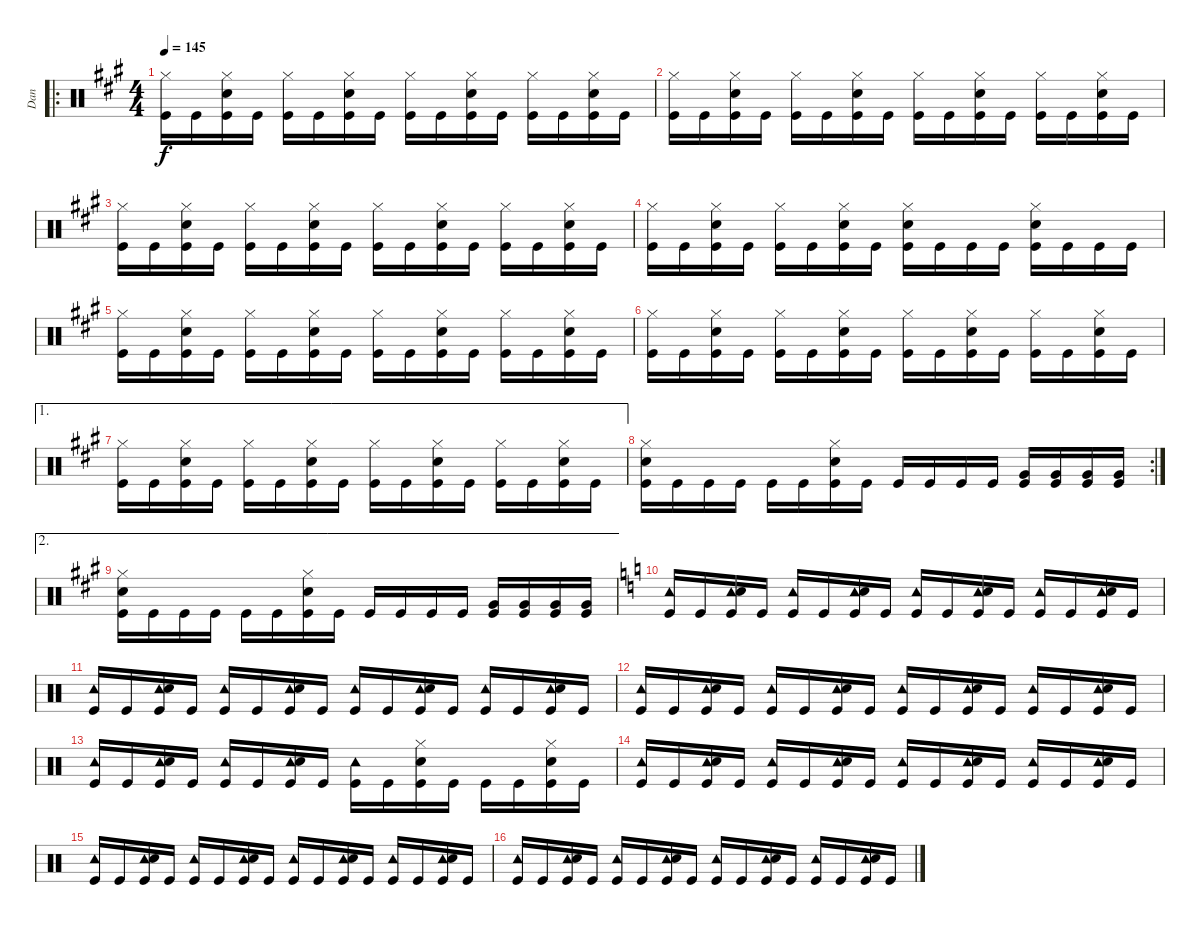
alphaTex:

\track ("Dan" "Dan") {instrument percussion}
\staff {score}
\articulation defaults
\ro
\ts (4 4)
\tempo 145
\clef neutral
\ks a
("Hi-Hat (closed)" "Kick (hit)").16{dy f} "Kick (hit)".16 ("Hi-Hat (closed)" "Snare (hit) 2" "Kick (hit)").16 "Kick (hit)".16 ("Hi-Hat (closed)" "Kick (hit)").16 "Kick (hit)".16 ("Hi-Hat (closed)" "Snare (hit) 2" "Kick (hit)").16 "Kick (hit)".16 ("Hi-Hat (closed)" "Kick (hit)").16 "Kick (hit)".16 ("Hi-Hat (closed)" "Snare (hit) 2" "Kick (hit)").16 "Kick (hit)".16 ("Hi-Hat (closed)" "Kick (hit)").16 "Kick (hit)".16 ("Hi-Hat (closed)" "Snare (hit) 2" "Kick (hit)").16 "Kick (hit)".16 |
("Hi-Hat (closed)" "Kick (hit)").16 "Kick (hit)".16 ("Hi-Hat (closed)" "Snare (hit) 2" "Kick (hit)").16 "Kick (hit)".16 ("Hi-Hat (closed)" "Kick (hit)").16 "Kick (hit)".16 ("Hi-Hat (closed)" "Snare (hit) 2" "Kick (hit)").16 "Kick (hit)".16 ("Hi-Hat (closed)" "Kick (hit)").16 "Kick (hit)".16 ("Hi-Hat (closed)" "Snare (hit) 2" "Kick (hit)").16 "Kick (hit)".16 ("Hi-Hat (closed)" "Kick (hit)").16 "Kick (hit)".16 ("Hi-Hat (closed)" "Snare (hit) 2" "Kick (hit)").16 "Kick (hit)".16 |
("Hi-Hat (closed)" "Kick (hit)").16 "Kick (hit)".16 ("Hi-Hat (closed)" "Snare (hit) 2" "Kick (hit)").16 "Kick (hit)".16 ("Hi-Hat (closed)" "Kick (hit)").16 "Kick (hit)".16 ("Hi-Hat (closed)" "Snare (hit) 2" "Kick (hit)").16 "Kick (hit)".16 ("Hi-Hat (closed)" "Kick (hit)").16 "Kick (hit)".16 ("Hi-Hat (closed)" "Snare (hit) 2" "Kick (hit)").16 "Kick (hit)".16 ("Hi-Hat (closed)" "Kick (hit)").16 "Kick (hit)".16 ("Hi-Hat (closed)" "Snare (hit) 2" "Kick (hit)").16 "Kick (hit)".16 |
("Hi-Hat (closed)" "Kick (hit)").16 "Kick (hit)".16 ("Hi-Hat (closed)" "Snare (hit) 2" "Kick (hit)").16 "Kick (hit)".16 ("Hi-Hat (closed)" "Kick (hit)").16 "Kick (hit)".16 ("Hi-Hat (closed)" "Snare (hit) 2" "Kick (hit)").16 "Kick (hit)".16 ("Hi-Hat (closed)" "Snare (hit) 2" "Kick (hit)").16 "Kick (hit)".16 "Kick (hit)".16 "Kick (hit)".16 ("Hi-Hat (closed)" "Snare (hit) 2" "Kick (hit)").16 "Kick (hit)".16 "Kick (hit)".16 "Kick (hit)".16 |
("Hi-Hat (closed)" "Kick (hit)").16 "Kick (hit)".16 ("Hi-Hat (closed)" "Snare (hit) 2" "Kick (hit)").16 "Kick (hit)".16 ("Hi-Hat (closed)" "Kick (hit)").16 "Kick (hit)".16 ("Hi-Hat (closed)" "Snare (hit) 2" "Kick (hit)").16 "Kick (hit)".16 ("Hi-Hat (closed)" "Kick (hit)").16 "Kick (hit)".16 ("Hi-Hat (closed)" "Snare (hit) 2" "Kick (hit)").16 "Kick (hit)".16 ("Hi-Hat (closed)" "Kick (hit)").16 "Kick (hit)".16 ("Hi-Hat (closed)" "Snare (hit) 2" "Kick (hit)").16 "Kick (hit)".16 |
("Hi-Hat (closed)" "Kick (hit)").16 "Kick (hit)".16 ("Hi-Hat (closed)" "Snare (hit) 2" "Kick (hit)").16 "Kick (hit)".16 ("Hi-Hat (closed)" "Kick (hit)").16 "Kick (hit)".16 ("Hi-Hat (closed)" "Snare (hit) 2" "Kick (hit)").16 "Kick (hit)".16 ("Hi-Hat (closed)" "Kick (hit)").16 "Kick (hit)".16 ("Hi-Hat (closed)" "Snare (hit) 2" "Kick (hit)").16 "Kick (hit)".16 ("Hi-Hat (closed)" "Kick (hit)").16 "Kick (hit)".16 ("Hi-Hat (closed)" "Snare (hit) 2" "Kick (hit)").16 "Kick (hit)".16 |
\ae 1
("Hi-Hat (closed)" "Kick (hit)").16 "Kick (hit)".16 ("Hi-Hat (closed)" "Snare (hit) 2" "Kick (hit)").16 "Kick (hit)".16 ("Hi-Hat (closed)" "Kick (hit)").16 "Kick (hit)".16 ("Hi-Hat (closed)" "Snare (hit) 2" "Kick (hit)").16 "Kick (hit)".16 ("Hi-Hat (closed)" "Kick (hit)").16 "Kick (hit)".16 ("Hi-Hat (closed)" "Snare (hit) 2" "Kick (hit)").16 "Kick (hit)".16 ("Hi-Hat (closed)" "Kick (hit)").16 "Kick (hit)".16 ("Hi-Hat (closed)" "Snare (hit) 2" "Kick (hit)").16 "Kick (hit)".16 |
\rc 2
("Hi-Hat (closed)" "Snare (hit) 2" "Kick (hit)").16 "Kick (hit)".16 "Kick (hit)".16 "Kick (hit)".16 "Kick (hit)".16 "Kick (hit)".16 ("Hi-Hat (closed)" "Snare (hit) 2" "Kick (hit)").16 "Kick (hit)".16 "Kick (hit)".16 "Kick (hit)".16 "Kick (hit)".16 "Kick (hit)".16 ("Very Low Tom (hit)" "Kick (hit)").16 ("Very Low Tom (hit)" "Kick (hit)").16 ("Very Low Tom (hit)" "Kick (hit)").16 ("Very Low Tom (hit)" "Kick (hit)").16 |
\ae 2
("Hi-Hat (closed)" "Snare (hit) 2" "Kick (hit)").16 "Kick (hit)".16 "Kick (hit)".16 "Kick (hit)".16 "Kick (hit)".16 "Kick (hit)".16 ("Hi-Hat (closed)" "Snare (hit) 2" "Kick (hit)").16 "Kick (hit)".16 "Kick (hit)".16 "Kick (hit)".16 "Kick (hit)".16 "Kick (hit)".16 ("Very Low Tom (hit)" "Kick (hit)").16 ("Very Low Tom (hit)" "Kick (hit)").16 ("Very Low Tom (hit)" "Kick (hit)").16 ("Very Low Tom (hit)" "Kick (hit)").16 |
\ks c
("Tambourine (hit)" "Kick (hit)").16 "Kick (hit)".16 ("Tambourine (hit)" "Snare (hit) 2" "Kick (hit)").16 "Kick (hit)".16 ("Tambourine (hit)" "Kick (hit)").16 "Kick (hit)".16 ("Tambourine (hit)" "Snare (hit) 2" "Kick (hit)").16 "Kick (hit)".16 ("Tambourine (hit)" "Kick (hit)").16 "Kick (hit)".16 ("Tambourine (hit)" "Snare (hit) 2" "Kick (hit)").16 "Kick (hit)".16 ("Tambourine (hit)" "Kick (hit)").16 "Kick (hit)".16 ("Tambourine (hit)" "Snare (hit) 2" "Kick (hit)").16 "Kick (hit)".16 |
("Tambourine (hit)" "Kick (hit)").16 "Kick (hit)".16 ("Tambourine (hit)" "Snare (hit) 2" "Kick (hit)").16 "Kick (hit)".16 ("Tambourine (hit)" "Kick (hit)").16 "Kick (hit)".16 ("Tambourine (hit)" "Snare (hit) 2" "Kick (hit)").16 "Kick (hit)".16 ("Tambourine (hit)" "Kick (hit)").16 "Kick (hit)".16 ("Tambourine (hit)" "Snare (hit) 2" "Kick (hit)").16 "Kick (hit)".16 ("Tambourine (hit)" "Kick (hit)").16 "Kick (hit)".16 ("Tambourine (hit)" "Snare (hit) 2" "Kick (hit)").16 "Kick (hit)".16 |
("Tambourine (hit)" "Kick (hit)").16 "Kick (hit)".16 ("Tambourine (hit)" "Snare (hit) 2" "Kick (hit)").16 "Kick (hit)".16 ("Tambourine (hit)" "Kick (hit)").16 "Kick (hit)".16 ("Tambourine (hit)" "Snare (hit) 2" "Kick (hit)").16 "Kick (hit)".16 ("Tambourine (hit)" "Kick (hit)").16 "Kick (hit)".16 ("Tambourine (hit)" "Snare (hit) 2" "Kick (hit)").16 "Kick (hit)".16 ("Tambourine (hit)" "Kick (hit)").16 "Kick (hit)".16 ("Tambourine (hit)" "Snare (hit) 2" "Kick (hit)").16 "Kick (hit)".16 |
("Tambourine (hit)" "Kick (hit)").16 "Kick (hit)".16 ("Tambourine (hit)" "Snare (hit) 2" "Kick (hit)").16 "Kick (hit)".16 ("Tambourine (hit)" "Kick (hit)").16 "Kick (hit)".16 ("Tambourine (hit)" "Snare (hit) 2" "Kick (hit)").16 "Kick (hit)".16 ("Tambourine (hit)" "Kick (hit)").16 "Kick (hit)".16 ("Hi-Hat (closed)" "Snare (hit) 2" "Kick (hit)").16 "Kick (hit)".16 "Kick (hit)".16 "Kick (hit)".16 ("Hi-Hat (closed)" "Snare (hit) 2" "Kick (hit)").16 "Kick (hit)".16 |
("Tambourine (hit)" "Kick (hit)").16 "Kick (hit)".16 ("Tambourine (hit)" "Snare (hit) 2" "Kick (hit)").16 "Kick (hit)".16 ("Tambourine (hit)" "Kick (hit)").16 "Kick (hit)".16 ("Tambourine (hit)" "Snare (hit) 2" "Kick (hit)").16 "Kick (hit)".16 ("Tambourine (hit)" "Kick (hit)").16 "Kick (hit)".16 ("Tambourine (hit)" "Snare (hit) 2" "Kick (hit)").16 "Kick (hit)".16 ("Tambourine (hit)" "Kick (hit)").16 "Kick (hit)".16 ("Tambourine (hit)" "Snare (hit) 2" "Kick (hit)").16 "Kick (hit)".16 |
("Tambourine (hit)" "Kick (hit)").16 "Kick (hit)".16 ("Tambourine (hit)" "Snare (hit) 2" "Kick (hit)").16 "Kick (hit)".16 ("Tambourine (hit)" "Kick (hit)").16 "Kick (hit)".16 ("Tambourine (hit)" "Snare (hit) 2" "Kick (hit)").16 "Kick (hit)".16 ("Tambourine (hit)" "Kick (hit)").16 "Kick (hit)".16 ("Tambourine (hit)" "Snare (hit) 2" "Kick (hit)").16 "Kick (hit)".16 ("Tambourine (hit)" "Kick (hit)").16 "Kick (hit)".16 ("Tambourine (hit)" "Snare (hit) 2" "Kick (hit)").16 "Kick (hit)".16 |
("Tambourine (hit)" "Kick (hit)").16 "Kick (hit)".16 ("Tambourine (hit)" "Snare (hit) 2" "Kick (hit)").16 "Kick (hit)".16 ("Tambourine (hit)" "Kick (hit)").16 "Kick (hit)".16 ("Tambourine (hit)" "Snare (hit) 2" "Kick (hit)").16 "Kick (hit)".16 ("Tambourine (hit)" "Kick (hit)").16 "Kick (hit)".16 ("Tambourine (hit)" "Snare (hit) 2" "Kick (hit)").16 "Kick (hit)".16 ("Tambourine (hit)" "Kick (hit)").16 "Kick (hit)".16 ("Tambourine (hit)" "Snare (hit) 2" "Kick (hit)").16 "Kick (hit)".16
